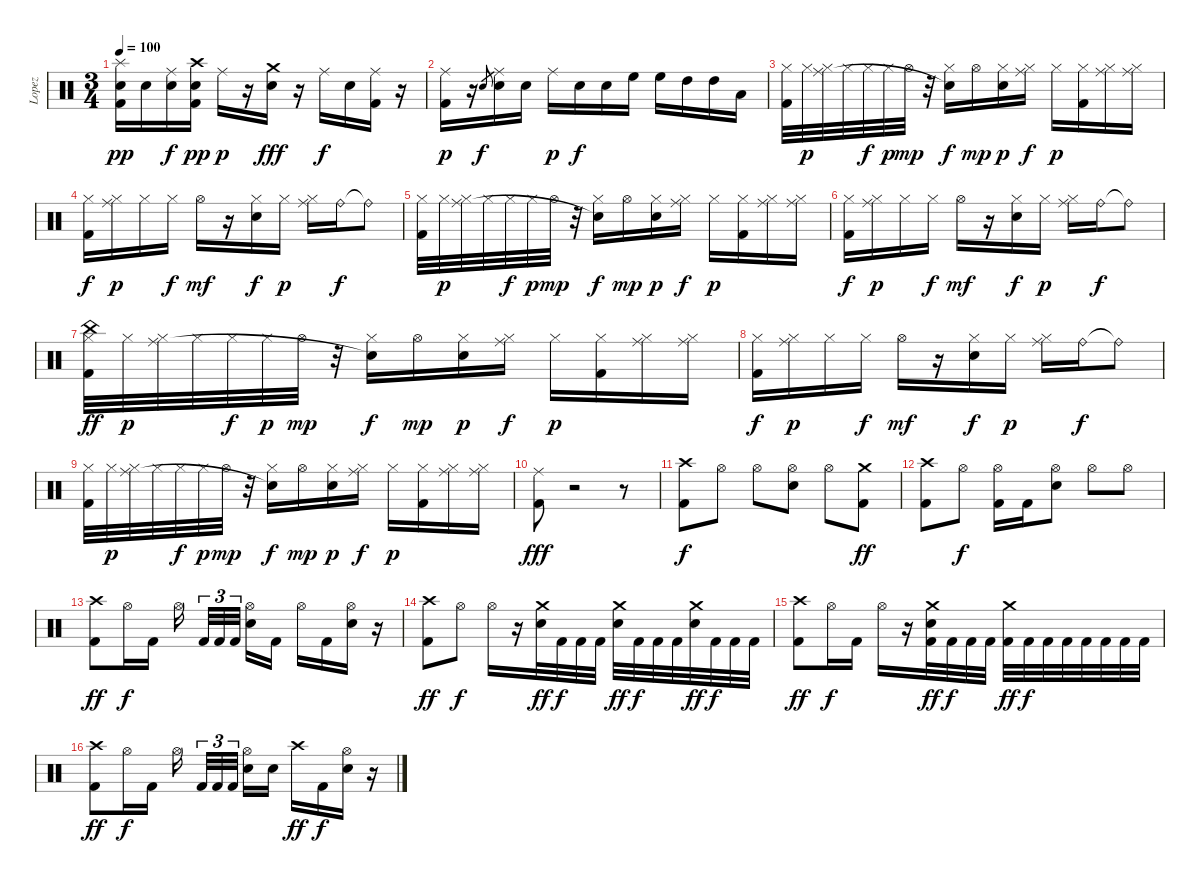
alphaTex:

\track ("Lopez" "Lopez") {instrument percussion}
\staff {score}
\articulation defaults
\ts (3 4)
\tempo 100
\clef neutral
\ks c
("Splash (hit)" "Snare (hit) 2" "Kick (hit) 2").16{dy pp} "Snare (hit) 2".16 ("Ride (middle)" "Snare (hit) 2").16{dy f} ("Crash high (hit)" "Electric Snare (hit)" "Kick (hit) 2").16{dy pp} "Ride (middle)".16{dy p} r.16 ("Crash medium (hit)" "Snare (hit) 2").16{dy fff} r.16 "Ride (middle)".16{dy f} "Snare (hit) 2".16 ("Ride (middle)" "Kick (hit) 2").16 r.16 |
("Ride (middle)" "Kick (hit) 2").16{dy p} r.16 "Snare (hit) 2".8{gr dy f} ("Ride (middle)" "Snare (hit) 2").16 "Snare (hit) 2".16 "Ride (middle)".16{dy p} "Snare (hit) 2".16{dy f} "Snare (hit) 2".16 "High Floor Tom (hit)".16 "High Floor Tom (hit)".16 "High Tom (hit)".16 "High Tom (hit)".16 "Low Tom (hit)".16 |
("Hi-Hat (closed)" "Kick (hit) 2").32 "Hi-Hat (closed)".32{dy p} ("Hi-Hat (closed)" "Ride (middle)").32 "Hi-Hat (closed)".32 "Hi-Hat (closed)".32{dy f} "Hi-Hat (closed)".32{dy p} "Hi-Hat (open)".32{dy mp} r.32 ("Hi-Hat (closed)" "Snare (hit)"{t}).16{dy f} "Hi-Hat (open)".16{dy mp} ("Hi-Hat (closed)" "Snare (hit) 2").16{dy p} ("Hi-Hat (closed)" "Ride (middle)").16{dy f} "Hi-Hat (closed)".16{dy p} ("Hi-Hat (closed)" "Kick (hit) 2").16 ("Hi-Hat (closed)" "Ride (middle)").16 ("Hi-Hat (closed)" "Ride (middle)").16 |
("Hi-Hat (closed)" "Kick (hit) 2").16{dy f} ("Hi-Hat (closed)" "Ride (middle)").16{dy p} "Hi-Hat (closed)".16 "Hi-Hat (closed)".16{dy f} "Hi-Hat (open)".16{dy mf} r.16 ("Hi-Hat (closed)" "Snare (hit) 2").16{dy f} "Hi-Hat (closed)".16{dy p} ("Hi-Hat (closed)" "Ride (middle)").16 "Ride (bell)".16{dy f} "Ride (bell)"{t}.8 |
("Hi-Hat (closed)" "Kick (hit) 2").32 "Hi-Hat (closed)".32{dy p} ("Hi-Hat (closed)" "Ride (middle)").32 "Hi-Hat (closed)".32 "Hi-Hat (closed)".32{dy f} "Hi-Hat (closed)".32{dy p} "Hi-Hat (open)".32{dy mp} r.32 ("Hi-Hat (closed)" "Snare (hit)"{t}).16{dy f} "Hi-Hat (open)".16{dy mp} ("Hi-Hat (closed)" "Snare (hit) 2").16{dy p} ("Hi-Hat (closed)" "Ride (middle)").16{dy f} "Hi-Hat (closed)".16{dy p} ("Hi-Hat (closed)" "Kick (hit) 2").16 ("Hi-Hat (closed)" "Ride (middle)").16 ("Hi-Hat (closed)" "Ride (middle)").16 |
("Hi-Hat (closed)" "Kick (hit) 2").16{dy f} ("Hi-Hat (closed)" "Ride (middle)").16{dy p} "Hi-Hat (closed)".16 "Hi-Hat (closed)".16{dy f} "Hi-Hat (open)".16{dy mf} r.16 ("Hi-Hat (closed)" "Snare (hit) 2").16{dy f} "Hi-Hat (closed)".16{dy p} ("Hi-Hat (closed)" "Ride (middle)").16 "Ride (bell)".16{dy f} "Ride (bell)"{t}.8 |
("Hi-Hat (closed)" "China (hit)" "Kick (hit) 2").32{dy ff} "Hi-Hat (closed)".32{dy p} ("Hi-Hat (closed)" "Ride (middle)").32 "Hi-Hat (closed)".32 "Hi-Hat (closed)".32{dy f} "Hi-Hat (closed)".32{dy p} "Hi-Hat (open)".32{dy mp} r.32 ("Hi-Hat (closed)" "Snare (hit)"{t}).16{dy f} "Hi-Hat (open)".16{dy mp} ("Hi-Hat (closed)" "Snare (hit) 2").16{dy p} ("Hi-Hat (closed)" "Ride (middle)").16{dy f} "Hi-Hat (closed)".16{dy p} ("Hi-Hat (closed)" "Kick (hit) 2").16 ("Hi-Hat (closed)" "Ride (middle)").16 ("Hi-Hat (closed)" "Ride (middle)").16 |
("Hi-Hat (closed)" "Kick (hit) 2").16{dy f} ("Hi-Hat (closed)" "Ride (middle)").16{dy p} "Hi-Hat (closed)".16 "Hi-Hat (closed)".16{dy f} "Hi-Hat (open)".16{dy mf} r.16 ("Hi-Hat (closed)" "Snare (hit) 2").16{dy f} "Hi-Hat (closed)".16{dy p} ("Hi-Hat (closed)" "Ride (middle)").16 "Ride (bell)".16{dy f} "Ride (bell)"{t}.8 |
("Hi-Hat (closed)" "Kick (hit) 2").32 "Hi-Hat (closed)".32{dy p} ("Hi-Hat (closed)" "Ride (middle)").32 "Hi-Hat (closed)".32 "Hi-Hat (closed)".32{dy f} "Hi-Hat (closed)".32{dy p} "Hi-Hat (open)".32{dy mp} r.32 ("Hi-Hat (closed)" "Snare (hit)"{t}).16{dy f} "Hi-Hat (open)".16{dy mp} ("Hi-Hat (closed)" "Snare (hit) 2").16{dy p} ("Hi-Hat (closed)" "Ride (middle)").16{dy f} "Hi-Hat (closed)".16{dy p} ("Hi-Hat (closed)" "Kick (hit) 2").16 ("Hi-Hat (closed)" "Ride (middle)").16 ("Hi-Hat (closed)" "Ride (middle)").16 |
("Ride (middle)" "Kick (hit) 2").8{dy fff} r.2 r.8 |
("Crash high (hit)" "Kick (hit) 2").8{dy f} "Hi-Hat (open)".8 "Hi-Hat (open)".8 ("Hi-Hat (open)" "Snare (hit) 2").8 "Hi-Hat (open)".8 ("Crash medium (hit)" "Kick (hit) 2").8{dy ff} |
("Crash high (hit)" "Kick (hit) 2").8 "Hi-Hat (open)".8{dy f} ("Hi-Hat (open)" "Kick (hit) 2").16 "Kick (hit) 2".16 ("Hi-Hat (open)" "Snare (hit) 2").8 "Hi-Hat (open)".8 "Hi-Hat (open)".8 |
("Crash high (hit)" "Kick (hit) 2").8{dy ff} "Hi-Hat (open)".16{dy f} "Kick (hit) 2".16 "Hi-Hat (open)".16{beam splitsecondary} "Kick (hit) 2".32{tu (3 2)} "Kick (hit) 2".32{tu (3 2)} "Kick (hit) 2".32{tu (3 2) beam splitsecondary} ("Hi-Hat (open)" "Snare (hit) 2").16 "Kick (hit) 2".16 "Hi-Hat (open)".16 "Kick (hit) 2".16 ("Hi-Hat (open)" "Snare (hit) 2").16 r.16 |
("Crash high (hit)" "Kick (hit) 2").8{dy ff} "Hi-Hat (open)".8{dy f} "Hi-Hat (open)".16 r.16 ("Crash medium (hit)" "Snare (hit) 2").32{dy ff} "Kick (hit) 2".32{dy f} "Kick (hit) 2".32 "Kick (hit) 2".32 ("Crash medium (hit)" "Snare (hit) 2").32{dy ff} "Kick (hit) 2".32{dy f} "Kick (hit) 2".32 "Kick (hit) 2".32 ("Crash medium (hit)" "Snare (hit) 2").32{dy ff} "Kick (hit) 2".32{dy f} "Kick (hit) 2".32 "Kick (hit) 2".32 |
("Crash high (hit)" "Kick (hit) 2").8{dy ff} "Hi-Hat (open)".16{dy f} "Kick (hit) 2".16 "Hi-Hat (open)".16 r.16 ("Crash medium (hit)" "Snare (hit) 2" "Kick (hit) 2").32{dy ff} "Kick (hit) 2".32{dy f} "Kick (hit) 2".32 "Kick (hit) 2".32 ("Crash medium (hit)" "Kick (hit) 2").32{dy ff} "Kick (hit) 2".32{dy f} "Kick (hit) 2".32 "Kick (hit) 2".32 "Kick (hit) 2".32 "Kick (hit) 2".32 "Kick (hit) 2".32 "Kick (hit) 2".32 |
("Crash high (hit)" "Kick (hit) 2").8{dy ff} "Hi-Hat (open)".16{dy f} "Kick (hit) 2".16 "Hi-Hat (open)".16{beam splitsecondary} "Kick (hit) 2".32{tu (3 2)} "Kick (hit) 2".32{tu (3 2)} "Kick (hit) 2".32{tu (3 2) beam splitsecondary} ("Hi-Hat (open)" "Snare (hit) 2").16 "Snare (hit) 2".16 "Crash high (hit)".16{dy ff} "Kick (hit) 2".16{dy f} ("Hi-Hat (open)" "Snare (hit) 2").16 r.16
